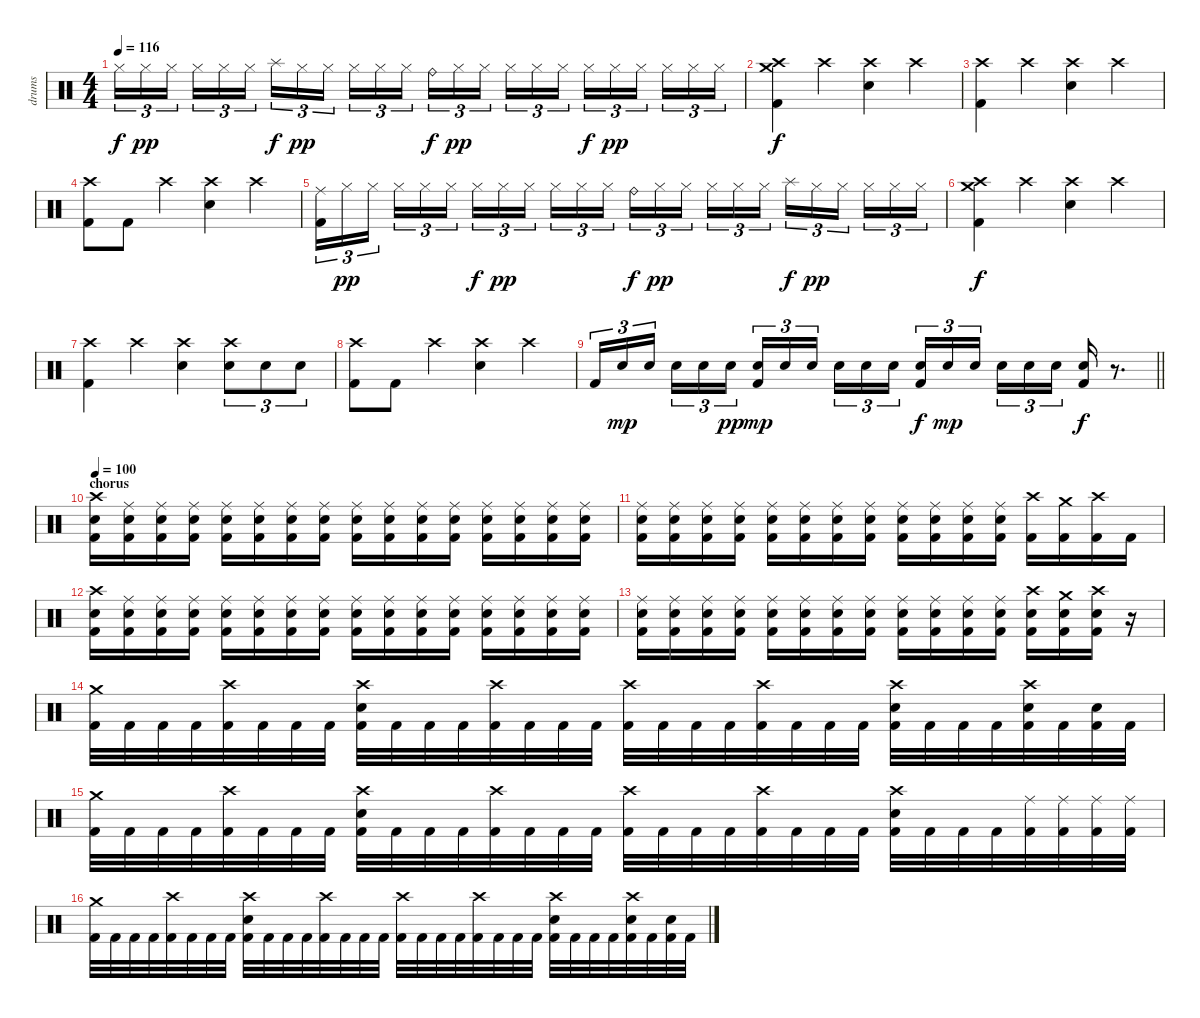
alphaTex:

\track ("drums" "drums") {instrument percussion}
\staff {score}
\articulation defaults
\ts (4 4)
\tempo 116
\clef neutral
\ks c "Hi-Hat (closed)".16{tu (3 2) dy f} "Hi-Hat (closed)".16{tu (3 2) dy pp} "Hi-Hat (closed)".16{tu (3 2) beam splitsecondary} "Hi-Hat (closed)".16{tu (3 2)} "Hi-Hat (closed)".16{tu (3 2)} "Hi-Hat (closed)".16{tu (3 2)} "Splash (hit)".16{tu (3 2) dy f} "Hi-Hat (closed)".16{tu (3 2) dy pp} "Hi-Hat (closed)".16{tu (3 2) beam splitsecondary} "Hi-Hat (closed)".16{tu (3 2)} "Hi-Hat (closed)".16{tu (3 2)} "Hi-Hat (closed)".16{tu (3 2)} "Ride (bell)".16{tu (3 2) dy f} "Hi-Hat (closed)".16{tu (3 2) dy pp} "Hi-Hat (closed)".16{tu (3 2) beam splitsecondary} "Hi-Hat (closed)".16{tu (3 2)} "Hi-Hat (closed)".16{tu (3 2)} "Hi-Hat (closed)".16{tu (3 2)} "Hi-Hat (closed)".16{tu (3 2) dy f} "Hi-Hat (closed)".16{tu (3 2) dy pp} "Hi-Hat (closed)".16{tu (3 2) beam splitsecondary} "Hi-Hat (closed)".16{tu (3 2)} "Hi-Hat (closed)".16{tu (3 2)} "Hi-Hat (closed)".16{tu (3 2)}
|
("Crash medium (hit)" "Crash high (hit)" "Kick (hit) 2").4{dy f} "Crash high (hit)".4 ("Crash high (hit)" "Snare (hit) 2").4 "Crash high (hit)".4 |
("Crash high (hit)" "Kick (hit) 2").4 "Crash high (hit)".4 ("Crash high (hit)" "Snare (hit) 2").4 "Crash high (hit)".4 |
("Crash high (hit)" "Kick (hit) 2").8 "Kick (hit) 2".8 "Crash high (hit)".4 ("Crash high (hit)" "Snare (hit) 2").4 "Crash high (hit)".4 |
("Ride (middle)" "Kick (hit) 2").16{tu (3 2)} "Hi-Hat (closed)".16{tu (3 2) dy pp} "Hi-Hat (closed)".16{tu (3 2) beam splitsecondary} "Hi-Hat (closed)".16{tu (3 2)} "Hi-Hat (closed)".16{tu (3 2)} "Hi-Hat (closed)".16{tu (3 2)} "Hi-Hat (closed)".16{tu (3 2) dy f} "Hi-Hat (closed)".16{tu (3 2) dy pp} "Hi-Hat (closed)".16{tu (3 2) beam splitsecondary} "Hi-Hat (closed)".16{tu (3 2)} "Hi-Hat (closed)".16{tu (3 2)} "Hi-Hat (closed)".16{tu (3 2)} "Ride (bell)".16{tu (3 2) dy f} "Hi-Hat (closed)".16{tu (3 2) dy pp} "Hi-Hat (closed)".16{tu (3 2) beam splitsecondary} "Hi-Hat (closed)".16{tu (3 2)} "Hi-Hat (closed)".16{tu (3 2)} "Hi-Hat (closed)".16{tu (3 2)} "Splash (hit)".16{tu (3 2) dy f} "Hi-Hat (closed)".16{tu (3 2) dy pp} "Hi-Hat (closed)".16{tu (3 2) beam splitsecondary} "Hi-Hat (closed)".16{tu (3 2)} "Hi-Hat (closed)".16{tu (3 2)} "Hi-Hat (closed)".16{tu (3 2)} |
("Crash medium (hit)" "Crash high (hit)" "Kick (hit) 2").4{dy f} "Crash high (hit)".4 ("Crash high (hit)" "Snare (hit) 2").4 "Crash high (hit)".4 |
("Crash high (hit)" "Kick (hit) 2").4 "Crash high (hit)".4 ("Crash high (hit)" "Snare (hit) 2").4 ("Crash high (hit)" "Snare (hit) 2").8{tu (3 2)} "Snare (hit) 2".8{tu (3 2)} "Snare (hit) 2".8{tu (3 2)} |
("Crash high (hit)" "Kick (hit) 2").8 "Kick (hit) 2".8 "Crash high (hit)".4 ("Crash high (hit)" "Snare (hit) 2").4 "Crash high (hit)".4 |
\barLineRight lightlight "Kick (hit) 2".16{tu (3 2)} "Snare (hit) 2".16{tu (3 2) dy mp} "Snare (hit) 2".16{tu (3 2) beam splitsecondary} "Snare (hit) 2".16{tu (3 2)} "Snare (hit) 2".16{tu (3 2)} "Snare (hit) 2".16{tu (3 2) dy pp}
("Snare (hit) 2" "Kick (hit) 2").16{tu (3 2) dy mp} "Snare (hit) 2".16{tu (3 2)} "Snare (hit) 2".16{tu (3 2) beam splitsecondary} "Snare (hit) 2".16{tu (3 2)} "Snare (hit) 2".16{tu (3 2)} "Snare (hit) 2".16{tu (3 2)} ("Snare (hit) 2" "Kick (hit) 2").16{tu (3 2) dy f} "Snare (hit) 2".16{tu (3 2) dy mp} "Snare (hit) 2".16{tu (3 2) beam splitsecondary} "Snare (hit) 2".16{tu (3 2)} "Snare (hit) 2".16{tu (3 2)} "Snare (hit) 2".16{tu (3 2)} ("Snare (hit) 2" "Kick (hit) 2").16{dy f} r.8{d} |
\section ("" "chorus")
\tempo 100
("Crash high (hit)" "Snare (hit) 2" "Kick (hit) 2").16 ("Ride (middle)" "Snare (hit) 2" "Kick (hit) 2").16 ("Ride (middle)" "Snare (hit) 2" "Kick (hit) 2").16 ("Ride (middle)" "Snare (hit) 2" "Kick (hit) 2").16 ("Ride (middle)" "Snare (hit) 2" "Kick (hit) 2").16 ("Ride (middle)" "Snare (hit) 2" "Kick (hit) 2").16 ("Ride (middle)" "Snare (hit) 2" "Kick (hit) 2").16 ("Ride (middle)" "Snare (hit) 2" "Kick (hit) 2").16 ("Ride (middle)" "Snare (hit) 2" "Kick (hit) 2").16 ("Ride (middle)" "Snare (hit) 2" "Kick (hit) 2").16 ("Ride (middle)" "Snare (hit) 2" "Kick (hit) 2").16 ("Ride (middle)" "Snare (hit) 2" "Kick (hit) 2").16 ("Ride (middle)" "Snare (hit) 2" "Kick (hit) 2").16 ("Ride (middle)" "Snare (hit) 2" "Kick (hit) 2").16 ("Ride (middle)" "Snare (hit) 2" "Kick (hit) 2").16 ("Ride (middle)" "Snare (hit) 2" "Kick (hit) 2").16 |
("Ride (middle)" "Snare (hit) 2" "Kick (hit) 2").16 ("Ride (middle)" "Snare (hit) 2" "Kick (hit) 2").16 ("Ride (middle)" "Snare (hit) 2" "Kick (hit) 2").16 ("Ride (middle)" "Snare (hit) 2" "Kick (hit) 2").16 ("Ride (middle)" "Snare (hit) 2" "Kick (hit) 2").16 ("Ride (middle)" "Snare (hit) 2" "Kick (hit) 2").16 ("Ride (middle)" "Snare (hit) 2" "Kick (hit) 2").16 ("Ride (middle)" "Snare (hit) 2" "Kick (hit) 2").16 ("Ride (middle)" "Snare (hit) 2" "Kick (hit) 2").16 ("Ride (middle)" "Snare (hit) 2" "Kick (hit) 2").16 ("Ride (middle)" "Snare (hit) 2" "Kick (hit) 2").16 ("Ride (middle)" "Snare (hit) 2" "Kick (hit) 2").16 ("Crash high (hit)" "Kick (hit) 2").16 ("Crash medium (hit)" "Kick (hit) 2").16 ("Crash high (hit)" "Kick (hit) 2").16 "Kick (hit) 2".16 |
("Crash high (hit)" "Snare (hit) 2" "Kick (hit) 2").16 ("Ride (middle)" "Snare (hit) 2" "Kick (hit) 2").16 ("Ride (middle)" "Snare (hit) 2" "Kick (hit) 2").16 ("Ride (middle)" "Snare (hit) 2" "Kick (hit) 2").16 ("Ride (middle)" "Snare (hit) 2" "Kick (hit) 2").16 ("Ride (middle)" "Snare (hit) 2" "Kick (hit) 2").16 ("Ride (middle)" "Snare (hit) 2" "Kick (hit) 2").16 ("Ride (middle)" "Snare (hit) 2" "Kick (hit) 2").16 ("Ride (middle)" "Snare (hit) 2" "Kick (hit) 2").16 ("Ride (middle)" "Snare (hit) 2" "Kick (hit) 2").16 ("Ride (middle)" "Snare (hit) 2" "Kick (hit) 2").16 ("Ride (middle)" "Snare (hit) 2" "Kick (hit) 2").16 ("Ride (middle)" "Snare (hit) 2" "Kick (hit) 2").16 ("Ride (middle)" "Snare (hit) 2" "Kick (hit) 2").16 ("Ride (middle)" "Snare (hit) 2" "Kick (hit) 2").16 ("Ride (middle)" "Snare (hit) 2" "Kick (hit) 2").16 |
("Ride (middle)" "Snare (hit) 2" "Kick (hit) 2").16 ("Ride (middle)" "Snare (hit) 2" "Kick (hit) 2").16 ("Ride (middle)" "Snare (hit) 2" "Kick (hit) 2").16 ("Ride (middle)" "Snare (hit) 2" "Kick (hit) 2").16 ("Ride (middle)" "Snare (hit) 2" "Kick (hit) 2").16 ("Ride (middle)" "Snare (hit) 2" "Kick (hit) 2").16 ("Ride (middle)" "Snare (hit) 2" "Kick (hit) 2").16 ("Ride (middle)" "Snare (hit) 2" "Kick (hit) 2").16 ("Ride (middle)" "Snare (hit) 2" "Kick (hit) 2").16 ("Ride (middle)" "Snare (hit) 2" "Kick (hit) 2").16 ("Ride (middle)" "Snare (hit) 2" "Kick (hit) 2").16 ("Ride (middle)" "Snare (hit) 2" "Kick (hit) 2").16 ("Crash high (hit)" "Snare (hit) 2" "Kick (hit) 2").16 ("Crash medium (hit)" "Snare (hit) 2" "Kick (hit) 2").16 ("Crash high (hit)" "Snare (hit) 2" "Kick (hit) 2").16 r.16 |
("Crash medium (hit)" "Kick (hit) 2").32 "Kick (hit) 2".32 "Kick (hit) 2".32 "Kick (hit) 2".32 ("Crash high (hit)" "Kick (hit) 2").32 "Kick (hit) 2".32 "Kick (hit) 2".32 "Kick (hit) 2".32 ("Crash high (hit)" "Snare (hit) 2" "Kick (hit) 2").32 "Kick (hit) 2".32 "Kick (hit) 2".32 "Kick (hit) 2".32 ("Crash high (hit)" "Kick (hit) 2").32 "Kick (hit) 2".32 "Kick (hit) 2".32 "Kick (hit) 2".32 ("Crash high (hit)" "Kick (hit) 2").32 "Kick (hit) 2".32 "Kick (hit) 2".32 "Kick (hit) 2".32 ("Crash high (hit)" "Kick (hit) 2").32 "Kick (hit) 2".32 "Kick (hit) 2".32 "Kick (hit) 2".32 ("Crash high (hit)" "Snare (hit) 2" "Kick (hit) 2").32 "Kick (hit) 2".32 "Kick (hit) 2".32 "Kick (hit) 2".32 ("Crash high (hit)" "Snare (hit) 2" "Kick (hit) 2").32 "Kick (hit) 2".32 ("Snare (hit) 2" "Kick (hit) 2").32 "Kick (hit) 2".32 |
("Crash medium (hit)" "Kick (hit) 2").32 "Kick (hit) 2".32 "Kick (hit) 2".32 "Kick (hit) 2".32 ("Crash high (hit)" "Kick (hit) 2").32 "Kick (hit) 2".32 "Kick (hit) 2".32 "Kick (hit) 2".32 ("Crash high (hit)" "Snare (hit) 2" "Kick (hit) 2").32 "Kick (hit) 2".32 "Kick (hit) 2".32 "Kick (hit) 2".32 ("Crash high (hit)" "Kick (hit) 2").32 "Kick (hit) 2".32 "Kick (hit) 2".32 "Kick (hit) 2".32 ("Crash high (hit)" "Kick (hit) 2").32 "Kick (hit) 2".32 "Kick (hit) 2".32 "Kick (hit) 2".32 ("Crash high (hit)" "Kick (hit) 2").32 "Kick (hit) 2".32 "Kick (hit) 2".32 "Kick (hit) 2".32 ("Crash high (hit)" "Snare (hit) 2" "Kick (hit) 2").32 "Kick (hit) 2".32 "Kick (hit) 2".32 "Kick (hit) 2".32 ("Ride (middle)" "Kick (hit) 2").32 ("Ride (middle)" "Kick (hit) 2").32 ("Ride (middle)" "Kick (hit) 2").32 ("Ride (middle)" "Kick (hit) 2").32 |
("Crash medium (hit)" "Kick (hit) 2").32 "Kick (hit) 2".32 "Kick (hit) 2".32 "Kick (hit) 2".32 ("Crash high (hit)" "Kick (hit) 2").32 "Kick (hit) 2".32 "Kick (hit) 2".32 "Kick (hit) 2".32 ("Crash high (hit)" "Snare (hit) 2" "Kick (hit) 2").32 "Kick (hit) 2".32 "Kick (hit) 2".32 "Kick (hit) 2".32 ("Crash high (hit)" "Kick (hit) 2").32 "Kick (hit) 2".32 "Kick (hit) 2".32 "Kick (hit) 2".32 ("Crash high (hit)" "Kick (hit) 2").32 "Kick (hit) 2".32 "Kick (hit) 2".32 "Kick (hit) 2".32 ("Crash high (hit)" "Kick (hit) 2").32 "Kick (hit) 2".32 "Kick (hit) 2".32 "Kick (hit) 2".32 ("Crash high (hit)" "Snare (hit) 2" "Kick (hit) 2").32 "Kick (hit) 2".32 "Kick (hit) 2".32 "Kick (hit) 2".32 ("Crash high (hit)" "Snare (hit) 2" "Kick (hit) 2").32 "Kick (hit) 2".32 ("Snare (hit) 2" "Kick (hit) 2").32 "Kick (hit) 2".32
